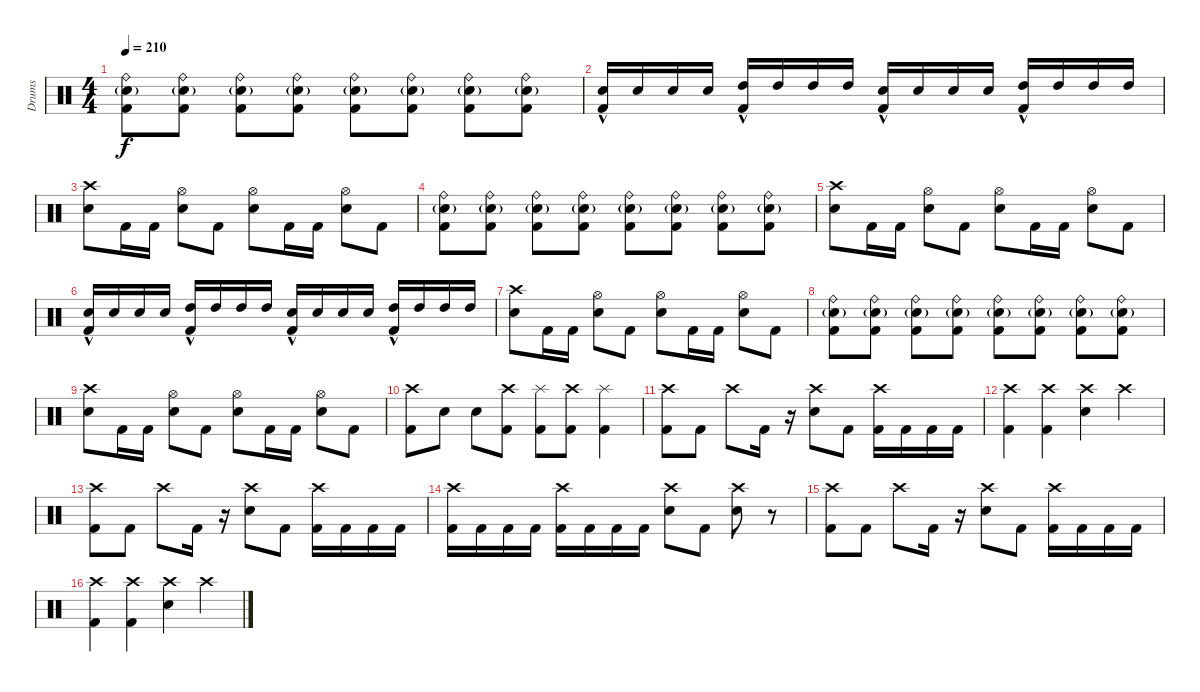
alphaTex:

\track ("Drums" "Drums") {instrument percussion}
\staff {score}
\articulation defaults
\ts (4 4)
\tempo 210
\clef neutral
\ks c
("Ride (bell)" "Snare (hit) 2"{g} "Kick (hit) 2").8{dy f} ("Ride (bell)" "Snare (hit) 2"{g} "Kick (hit) 2").8 ("Ride (bell)" "Snare (hit) 2"{g} "Kick (hit) 2").8 ("Ride (bell)" "Snare (hit) 2"{g} "Kick (hit) 2").8 ("Ride (bell)" "Snare (hit) 2"{g} "Kick (hit) 2").8 ("Ride (bell)" "Snare (hit) 2"{g} "Kick (hit) 2").8 ("Ride (bell)" "Snare (hit) 2"{g} "Kick (hit) 2").8 ("Ride (bell)" "Snare (hit) 2"{g} "Kick (hit) 2").8 |
("Snare (hit) 2"{hac} "Kick (hit) 2").16 "Snare (hit) 2".16 "Snare (hit) 2".16 "Snare (hit) 2".16 ("High Tom (hit)"{hac} "Kick (hit) 2").16 "High Tom (hit)".16 "High Tom (hit)".16 "High Tom (hit)".16 ("Snare (hit) 2"{hac} "Kick (hit) 2").16 "Snare (hit) 2".16 "Snare (hit) 2".16 "Snare (hit) 2".16 ("High Tom (hit)"{hac} "Kick (hit) 2").16 "High Tom (hit)".16 "High Tom (hit)".16 "High Tom (hit)".16 |
("Crash high (hit)" "Snare (hit) 2").8 "Kick (hit) 2".16 "Kick (hit) 2".16 ("Hi-Hat (open)" "Snare (hit) 2").8 "Kick (hit) 2".8 ("Hi-Hat (open)" "Snare (hit) 2").8 "Kick (hit) 2".16 "Kick (hit) 2".16 ("Hi-Hat (open)" "Snare (hit) 2").8 "Kick (hit) 2".8 |
("Ride (bell)" "Snare (hit) 2"{g} "Kick (hit) 2").8 ("Ride (bell)" "Snare (hit) 2"{g} "Kick (hit) 2").8 ("Ride (bell)" "Snare (hit) 2"{g} "Kick (hit) 2").8 ("Ride (bell)" "Snare (hit) 2"{g} "Kick (hit) 2").8 ("Ride (bell)" "Snare (hit) 2"{g} "Kick (hit) 2").8 ("Ride (bell)" "Snare (hit) 2"{g} "Kick (hit) 2").8 ("Ride (bell)" "Snare (hit) 2"{g} "Kick (hit) 2").8 ("Ride (bell)" "Snare (hit) 2"{g} "Kick (hit) 2").8 |
("Crash high (hit)" "Snare (hit) 2").8 "Kick (hit) 2".16 "Kick (hit) 2".16 ("Hi-Hat (open)" "Snare (hit) 2").8 "Kick (hit) 2".8 ("Hi-Hat (open)" "Snare (hit) 2").8 "Kick (hit) 2".16 "Kick (hit) 2".16 ("Hi-Hat (open)" "Snare (hit) 2").8 "Kick (hit) 2".8 |
("Snare (hit) 2"{hac} "Kick (hit) 2").16 "Snare (hit) 2".16 "Snare (hit) 2".16 "Snare (hit) 2".16 ("High Tom (hit)"{hac} "Kick (hit) 2").16 "High Tom (hit)".16 "High Tom (hit)".16 "High Tom (hit)".16 ("Snare (hit) 2"{hac} "Kick (hit) 2").16 "Snare (hit) 2".16 "Snare (hit) 2".16 "Snare (hit) 2".16 ("High Tom (hit)"{hac} "Kick (hit) 2").16 "High Tom (hit)".16 "High Tom (hit)".16 "High Tom (hit)".16 |
("Crash high (hit)" "Snare (hit) 2").8 "Kick (hit) 2".16 "Kick (hit) 2".16 ("Hi-Hat (open)" "Snare (hit) 2").8 "Kick (hit) 2".8 ("Hi-Hat (open)" "Snare (hit) 2").8 "Kick (hit) 2".16 "Kick (hit) 2".16 ("Hi-Hat (open)" "Snare (hit) 2").8 "Kick (hit) 2".8 |
("Ride (bell)" "Snare (hit) 2"{g} "Kick (hit) 2").8 ("Ride (bell)" "Snare (hit) 2"{g} "Kick (hit) 2").8 ("Ride (bell)" "Snare (hit) 2"{g} "Kick (hit) 2").8 ("Ride (bell)" "Snare (hit) 2"{g} "Kick (hit) 2").8 ("Ride (bell)" "Snare (hit) 2"{g} "Kick (hit) 2").8 ("Ride (bell)" "Snare (hit) 2"{g} "Kick (hit) 2").8 ("Ride (bell)" "Snare (hit) 2"{g} "Kick (hit) 2").8 ("Ride (bell)" "Snare (hit) 2"{g} "Kick (hit) 2").8 |
("Crash high (hit)" "Snare (hit) 2").8 "Kick (hit) 2".16 "Kick (hit) 2".16 ("Hi-Hat (open)" "Snare (hit) 2").8 "Kick (hit) 2".8 ("Hi-Hat (open)" "Snare (hit) 2").8 "Kick (hit) 2".16 "Kick (hit) 2".16 ("Hi-Hat (open)" "Snare (hit) 2").8 "Kick (hit) 2".8 |
("Crash high (hit)" "Kick (hit) 2").8 "Snare (hit) 2".8 "Snare (hit) 2".8 ("Crash high (hit)" "Kick (hit) 2").8 ("Splash (hit)" "Kick (hit) 2").8 ("Crash high (hit)" "Kick (hit) 2").8 ("Splash (hit)" "Kick (hit) 2").4 |
("Crash high (hit)" "Kick (hit) 2").8 "Kick (hit) 2".8 "Crash high (hit)".8 "Kick (hit) 2".16 r.16 ("Crash high (hit)" "Snare (hit) 2").8 "Kick (hit) 2".8 ("Crash high (hit)" "Kick (hit) 2").16 "Kick (hit) 2".16 "Kick (hit) 2".16 "Kick (hit) 2".16 |
("Crash high (hit)" "Kick (hit) 2").4 ("Crash high (hit)" "Kick (hit) 2").4 ("Crash high (hit)" "Snare (hit) 2").4 "Crash high (hit)".4 |
("Crash high (hit)" "Kick (hit) 2").8 "Kick (hit) 2".8 "Crash high (hit)".8 "Kick (hit) 2".16 r.16 ("Crash high (hit)" "Snare (hit) 2").8 "Kick (hit) 2".8 ("Crash high (hit)" "Kick (hit) 2").16 "Kick (hit) 2".16 "Kick (hit) 2".16 "Kick (hit) 2".16 |
("Crash high (hit)" "Kick (hit) 2").16 "Kick (hit) 2".16 "Kick (hit) 2".16 "Kick (hit) 2".16 ("Crash high (hit)" "Kick (hit) 2").16 "Kick (hit) 2".16 "Kick (hit) 2".16 "Kick (hit) 2".16 ("Crash high (hit)" "Snare (hit) 2").8 "Kick (hit) 2".8 ("Crash high (hit)" "Snare (hit) 2").8 r.8 |
("Crash high (hit)" "Kick (hit) 2").8 "Kick (hit) 2".8 "Crash high (hit)".8 "Kick (hit) 2".16 r.16 ("Crash high (hit)" "Snare (hit) 2").8 "Kick (hit) 2".8 ("Crash high (hit)" "Kick (hit) 2").16 "Kick (hit) 2".16 "Kick (hit) 2".16 "Kick (hit) 2".16 |
("Crash high (hit)" "Kick (hit) 2").4 ("Crash high (hit)" "Kick (hit) 2").4 ("Crash high (hit)" "Snare (hit) 2").4 "Crash high (hit)".4
